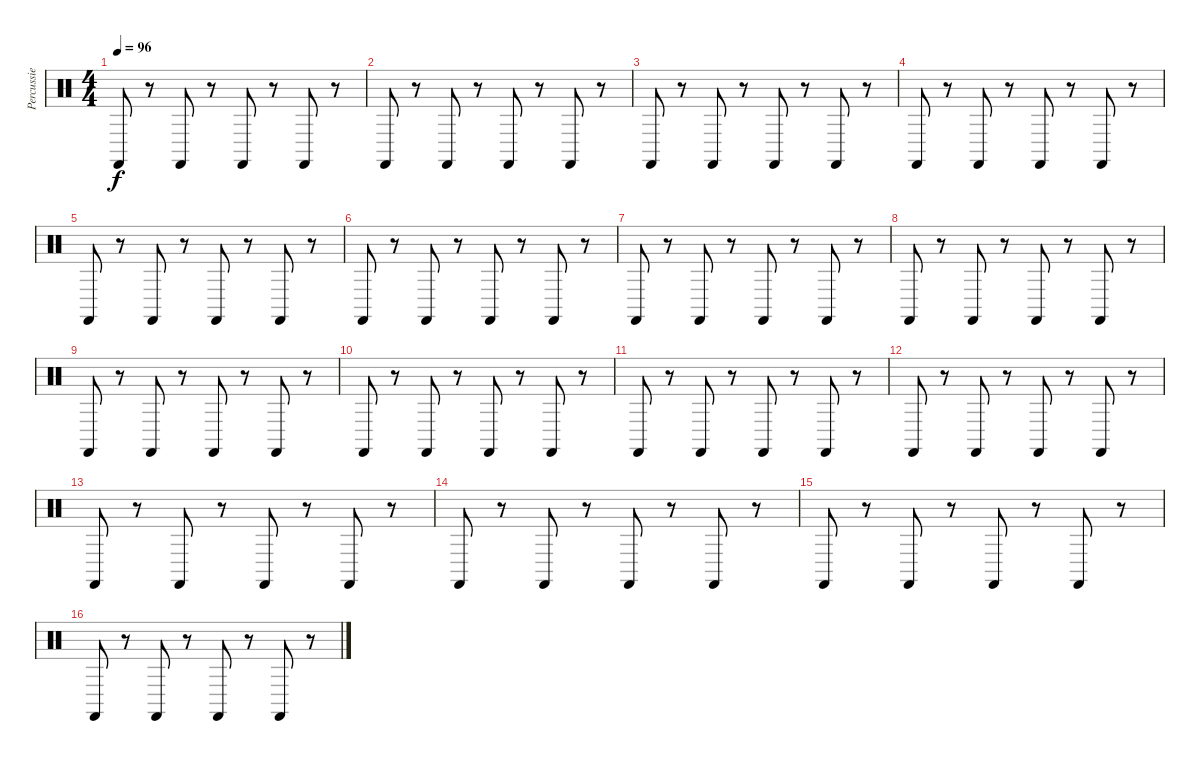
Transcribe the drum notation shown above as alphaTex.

\track ("Percussie" "Percussie") {instrument percussion}
\staff {score}
\articulation defaults
\ts (4 4)
\tempo 96
\clef neutral
\ks c "Castanets (hit)".8{dy f}
r.8 "Castanets (hit)".8 r.8 "Castanets (hit)".8 r.8 "Castanets (hit)".8 r.8 |
"Castanets (hit)".8 r.8 "Castanets (hit)".8 r.8 "Castanets (hit)".8 r.8 "Castanets (hit)".8 r.8 |
"Castanets (hit)".8 r.8 "Castanets (hit)".8 r.8 "Castanets (hit)".8 r.8 "Castanets (hit)".8 r.8 |
"Castanets (hit)".8 r.8 "Castanets (hit)".8 r.8 "Castanets (hit)".8 r.8 "Castanets (hit)".8 r.8 |
"Castanets (hit)".8 r.8 "Castanets (hit)".8 r.8 "Castanets (hit)".8 r.8 "Castanets (hit)".8 r.8 |
"Castanets (hit)".8 r.8 "Castanets (hit)".8 r.8 "Castanets (hit)".8 r.8 "Castanets (hit)".8 r.8 |
"Castanets (hit)".8 r.8 "Castanets (hit)".8 r.8 "Castanets (hit)".8 r.8 "Castanets (hit)".8 r.8 |
"Castanets (hit)".8 r.8 "Castanets (hit)".8 r.8 "Castanets (hit)".8 r.8 "Castanets (hit)".8 r.8 |
"Castanets (hit)".8 r.8 "Castanets (hit)".8 r.8 "Castanets (hit)".8 r.8 "Castanets (hit)".8 r.8 |
"Castanets (hit)".8 r.8 "Castanets (hit)".8 r.8 "Castanets (hit)".8 r.8 "Castanets (hit)".8 r.8 |
"Castanets (hit)".8 r.8 "Castanets (hit)".8 r.8 "Castanets (hit)".8 r.8 "Castanets (hit)".8 r.8 |
"Castanets (hit)".8 r.8 "Castanets (hit)".8 r.8 "Castanets (hit)".8 r.8 "Castanets (hit)".8 r.8 |
"Castanets (hit)".8 r.8 "Castanets (hit)".8 r.8 "Castanets (hit)".8 r.8 "Castanets (hit)".8 r.8 |
"Castanets (hit)".8 r.8 "Castanets (hit)".8 r.8 "Castanets (hit)".8 r.8 "Castanets (hit)".8 r.8 |
"Castanets (hit)".8 r.8 "Castanets (hit)".8 r.8 "Castanets (hit)".8 r.8 "Castanets (hit)".8 r.8 |
"Castanets (hit)".8 r.8 "Castanets (hit)".8 r.8 "Castanets (hit)".8 r.8 "Castanets (hit)".8 r.8
